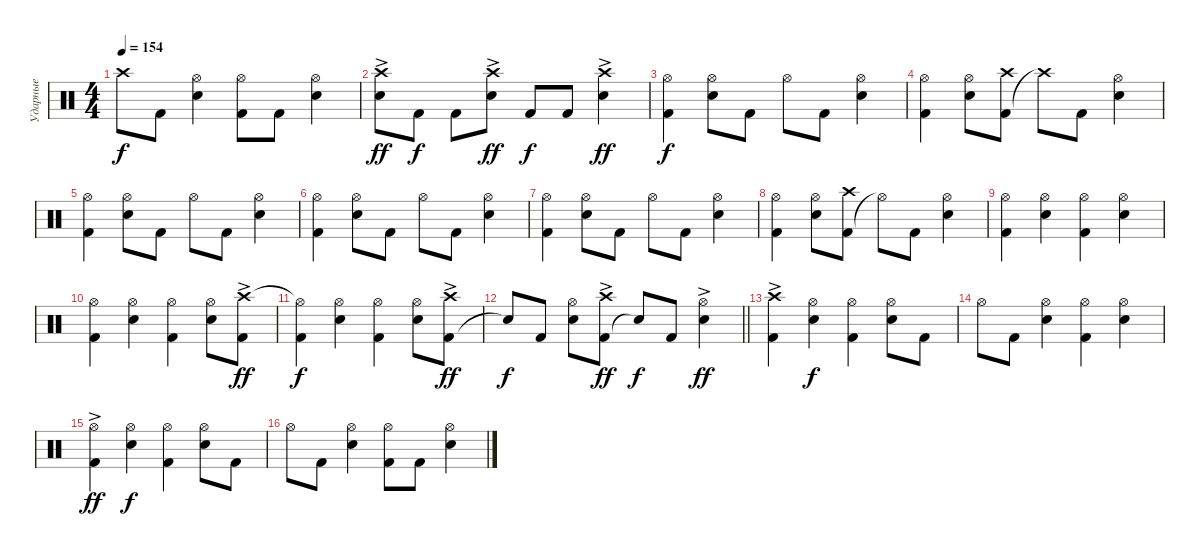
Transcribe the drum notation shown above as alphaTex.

\track ("Ударные" "Ударные") {instrument percussion}
\staff {score}
\articulation defaults
\ts (4 4)
\tempo 154
\clef neutral
\ks c "Crash high (hit)"{t}.8{dy f} "Kick (hit) 2".8
("Snare (hit) 2" "Hi-Hat (open)").4 ("Kick (hit) 2" "Hi-Hat (open)").8 "Kick (hit) 2".8 ("Snare (hit) 2" "Hi-Hat (open)").4 |
("Snare (hit) 2" "Crash high (hit)"{ac}).8{dy ff} "Kick (hit) 2".8{dy f} "Kick (hit) 2".8 ("Snare (hit) 2" "Crash high (hit)"{ac}).8{dy ff} "Kick (hit) 2".8{dy f} "Kick (hit) 2".8 ("Snare (hit) 2" "Crash high (hit)"{ac}).4{dy ff} |
("Kick (hit) 2" "Hi-Hat (open)").4{dy f} ("Snare (hit) 2" "Hi-Hat (open)").8 "Kick (hit) 2".8 "Hi-Hat (open)".8 "Kick (hit) 2".8 ("Snare (hit) 2" "Hi-Hat (open)").4 |
("Kick (hit) 2" "Hi-Hat (open)").4 ("Snare (hit) 2" "Hi-Hat (open)").8 ("Kick (hit) 2" "Crash high (hit)").8 "Crash high (hit)"{t}.8 "Kick (hit) 2".8 ("Snare (hit) 2" "Hi-Hat (open)").4 |
("Kick (hit) 2" "Hi-Hat (open)").4 ("Snare (hit) 2" "Hi-Hat (open)").8 "Kick (hit) 2".8 "Hi-Hat (open)".8 "Kick (hit) 2".8 ("Snare (hit) 2" "Hi-Hat (open)").4 |
("Kick (hit) 2" "Hi-Hat (open)").4 ("Snare (hit) 2" "Hi-Hat (open)").8 "Kick (hit) 2".8 "Hi-Hat (open)".8 "Kick (hit) 2".8 ("Snare (hit) 2" "Hi-Hat (open)").4 |
("Kick (hit) 2" "Hi-Hat (open)").4 ("Snare (hit) 2" "Hi-Hat (open)").8 "Kick (hit) 2".8 "Hi-Hat (open)".8 "Kick (hit) 2".8 ("Snare (hit) 2" "Hi-Hat (open)").4 |
("Kick (hit) 2" "Hi-Hat (open)").4 ("Snare (hit) 2" "Hi-Hat (open)").8 ("Kick (hit) 2" "Crash high (hit)").8 "Hi-Hat (open)"{t}.8 "Kick (hit) 2".8 ("Snare (hit) 2" "Hi-Hat (open)").4 |
("Kick (hit) 2" "Hi-Hat (open)").4 ("Snare (hit) 2" "Hi-Hat (open)").4 ("Kick (hit) 2" "Hi-Hat (open)").4 ("Snare (hit) 2" "Hi-Hat (open)").4 |
("Kick (hit) 2" "Hi-Hat (open)").4 ("Snare (hit) 2" "Hi-Hat (open)").4 ("Kick (hit) 2" "Hi-Hat (open)").4 ("Snare (hit) 2" "Hi-Hat (open)").8 ("Kick (hit) 2" "Crash high (hit)"{ac}).8{dy ff} |
("Kick (hit) 2" "Hi-Hat (open)"{t}).4{dy f} ("Snare (hit) 2" "Hi-Hat (open)").4 ("Kick (hit) 2" "Hi-Hat (open)").4 ("Snare (hit) 2" "Hi-Hat (open)").8 ("Kick (hit) 2" "Crash high (hit)"{ac}).8{dy ff} |
\barLineRight lightlight "Snare (hit)"{t}.8{dy f} "Kick (hit) 2".8
("Snare (hit) 2" "Hi-Hat (open)").8 ("Kick (hit) 2" "Crash high (hit)"{ac}).8{dy ff} "Snare (hit)"{t}.8{dy f} "Kick (hit) 2".8 ("Snare (hit) 2" "Hi-Hat (open)"{ac}).4{dy ff} |
("Kick (hit) 2" "Crash high (hit)"{ac}).4 ("Snare (hit) 2" "Hi-Hat (open)").4{dy f} ("Kick (hit) 2" "Hi-Hat (open)").4 ("Snare (hit) 2" "Hi-Hat (open)").8 "Kick (hit) 2".8 |
"Hi-Hat (open)".8 "Kick (hit) 2".8 ("Snare (hit) 2" "Hi-Hat (open)").4 ("Kick (hit) 2" "Hi-Hat (open)").4 ("Snare (hit) 2" "Hi-Hat (open)").4 |
("Kick (hit) 2" "Hi-Hat (open)"{ac}).4{dy ff} ("Snare (hit) 2" "Hi-Hat (open)").4{dy f} ("Kick (hit) 2" "Hi-Hat (open)").4 ("Snare (hit) 2" "Hi-Hat (open)").8 "Kick (hit) 2".8 |
"Hi-Hat (open)".8 "Kick (hit) 2".8 ("Snare (hit) 2" "Hi-Hat (open)").4 ("Kick (hit) 2" "Hi-Hat (open)").8 "Kick (hit) 2".8 ("Snare (hit) 2" "Hi-Hat (open)").4
